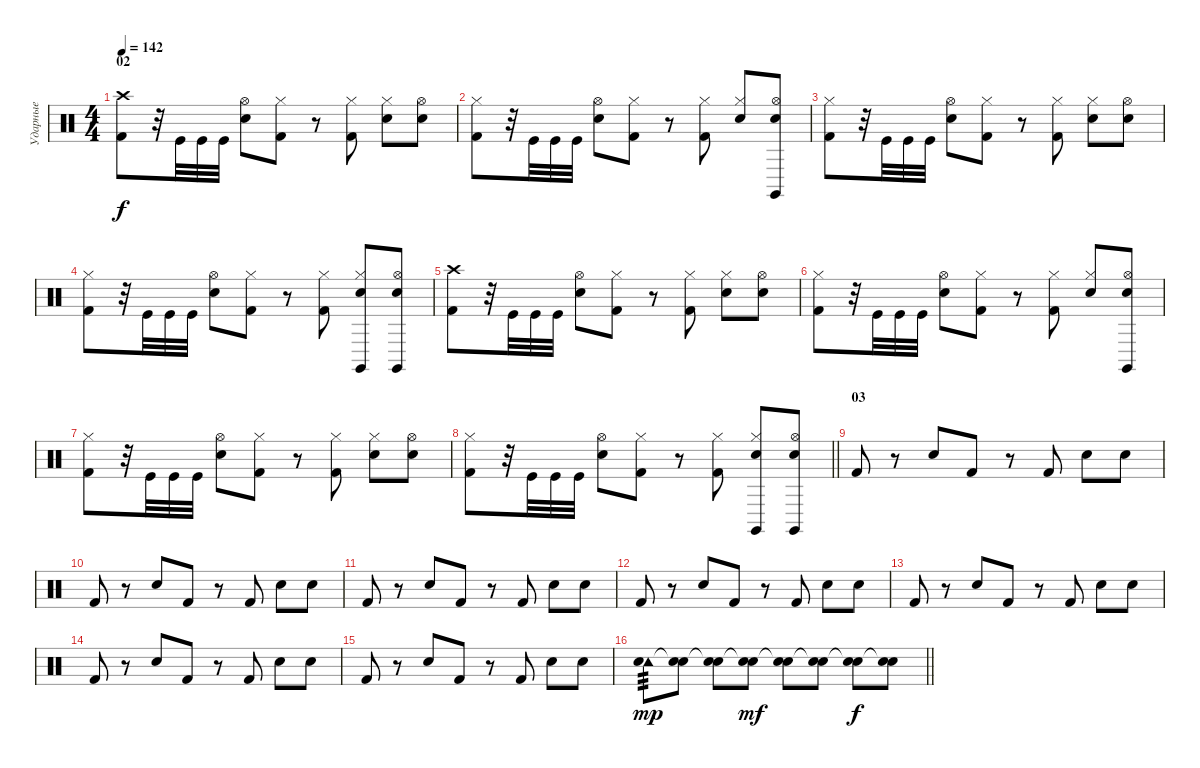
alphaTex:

\track ("Ударные" "Ударные") {instrument percussion}
\staff {score}
\articulation defaults
\ts (4 4)
\section ("" "02")
\tempo 142
\clef neutral
\ks c
("Crash high (hit)" "Kick (hit) 2").8{dy f} r.32 "Kick (hit)".32 "Kick (hit)".32 "Kick (hit)".32 ("Hi-Hat (open)" "Electric Snare (hit)").8 ("Hi-Hat (closed)" "Kick (hit) 2").8 r.8 ("Hi-Hat (closed)" "Kick (hit) 2").8 ("Hi-Hat (closed)" "Electric Snare (hit)").8 ("Hi-Hat (open)" "Electric Snare (hit)").8 |
("Hi-Hat (closed)" "Kick (hit) 2").8 r.32 "Kick (hit)".32 "Kick (hit)".32 "Kick (hit)".32 ("Hi-Hat (open)" "Electric Snare (hit)").8 ("Hi-Hat (closed)" "Kick (hit) 2").8 r.8 ("Hi-Hat (closed)" "Kick (hit) 2").8 ("Hi-Hat (closed)" "Electric Snare (hit)").8 ("Claves (hit)" "Hi-Hat (open)" "Electric Snare (hit)").8 |
("Hi-Hat (closed)" "Kick (hit) 2").8 r.32 "Kick (hit)".32 "Kick (hit)".32 "Kick (hit)".32 ("Hi-Hat (open)" "Electric Snare (hit)").8 ("Hi-Hat (closed)" "Kick (hit) 2").8 r.8 ("Hi-Hat (closed)" "Kick (hit) 2").8 ("Hi-Hat (closed)" "Electric Snare (hit)").8 ("Hi-Hat (open)" "Electric Snare (hit)").8 |
("Hi-Hat (closed)" "Kick (hit) 2").8 r.32 "Kick (hit)".32 "Kick (hit)".32 "Kick (hit)".32 ("Hi-Hat (open)" "Electric Snare (hit)").8 ("Hi-Hat (closed)" "Kick (hit) 2").8 r.8 ("Hi-Hat (closed)" "Kick (hit) 2").8 ("Claves (hit)" "Hi-Hat (closed)" "Electric Snare (hit)").8 ("Claves (hit)" "Hi-Hat (open)" "Electric Snare (hit)").8 |
("Crash high (hit)" "Kick (hit) 2").8 r.32 "Kick (hit)".32 "Kick (hit)".32 "Kick (hit)".32 ("Hi-Hat (open)" "Electric Snare (hit)").8 ("Hi-Hat (closed)" "Kick (hit) 2").8 r.8 ("Hi-Hat (closed)" "Kick (hit) 2").8 ("Hi-Hat (closed)" "Electric Snare (hit)").8 ("Hi-Hat (open)" "Electric Snare (hit)").8 |
("Hi-Hat (closed)" "Kick (hit) 2").8 r.32 "Kick (hit)".32 "Kick (hit)".32 "Kick (hit)".32 ("Hi-Hat (open)" "Electric Snare (hit)").8 ("Hi-Hat (closed)" "Kick (hit) 2").8 r.8 ("Hi-Hat (closed)" "Kick (hit) 2").8 ("Hi-Hat (closed)" "Electric Snare (hit)").8 ("Claves (hit)" "Hi-Hat (open)" "Electric Snare (hit)").8 |
("Hi-Hat (closed)" "Kick (hit) 2").8 r.32 "Kick (hit)".32 "Kick (hit)".32 "Kick (hit)".32 ("Hi-Hat (open)" "Electric Snare (hit)").8 ("Hi-Hat (closed)" "Kick (hit) 2").8 r.8 ("Hi-Hat (closed)" "Kick (hit) 2").8 ("Hi-Hat (closed)" "Electric Snare (hit)").8 ("Hi-Hat (open)" "Electric Snare (hit)").8 |
\barLineRight lightlight
("Hi-Hat (closed)" "Kick (hit) 2").8 r.32 "Kick (hit)".32 "Kick (hit)".32 "Kick (hit)".32 ("Hi-Hat (open)" "Electric Snare (hit)").8 ("Hi-Hat (closed)" "Kick (hit) 2").8 r.8 ("Hi-Hat (closed)" "Kick (hit) 2").8 ("Claves (hit)" "Hi-Hat (closed)" "Electric Snare (hit)").8 ("Claves (hit)" "Hi-Hat (open)" "Electric Snare (hit)").8 |
\section ("" "03")
"Kick (hit) 2".8 r.8 "Electric Snare (hit)".8 "Kick (hit) 2".8 r.8 "Kick (hit) 2".8 "Electric Snare (hit)".8 "Electric Snare (hit)".8 |
"Kick (hit) 2".8 r.8 "Electric Snare (hit)".8 "Kick (hit) 2".8 r.8 "Kick (hit) 2".8 "Electric Snare (hit)".8 "Electric Snare (hit)".8 |
"Kick (hit) 2".8 r.8 "Electric Snare (hit)".8 "Kick (hit) 2".8 r.8 "Kick (hit) 2".8 "Electric Snare (hit)".8 "Electric Snare (hit)".8 |
"Kick (hit) 2".8 r.8 "Electric Snare (hit)".8 "Kick (hit) 2".8 r.8 "Kick (hit) 2".8 "Electric Snare (hit)".8 "Electric Snare (hit)".8 |
"Kick (hit) 2".8 r.8 "Electric Snare (hit)".8 "Kick (hit) 2".8 r.8 "Kick (hit) 2".8 "Electric Snare (hit)".8 "Electric Snare (hit)".8 |
"Kick (hit) 2".8 r.8 "Electric Snare (hit)".8 "Kick (hit) 2".8 r.8 "Kick (hit) 2".8 "Electric Snare (hit)".8 "Electric Snare (hit)".8 |
"Kick (hit) 2".8 r.8 "Electric Snare (hit)".8 "Kick (hit) 2".8 r.8 "Kick (hit) 2".8 "Electric Snare (hit)".8 "Electric Snare (hit)".8 |
\barLineRight lightlight
("Tambourine (hit)" "Electric Snare (hit)").8{tp 3 dy mp} ("Snare (hit)"{t} "Electric Snare (hit)").8 ("Snare (hit)"{t} "Electric Snare (hit)").8 ("Snare (hit)"{t} "Electric Snare (hit)").8{dy mf} ("Snare (hit)"{t} "Electric Snare (hit)").8 ("Snare (hit)"{t} "Electric Snare (hit)").8 ("Snare (hit)"{t} "Electric Snare (hit)").8{dy f} ("Snare (hit)"{t} "Electric Snare (hit)").8
